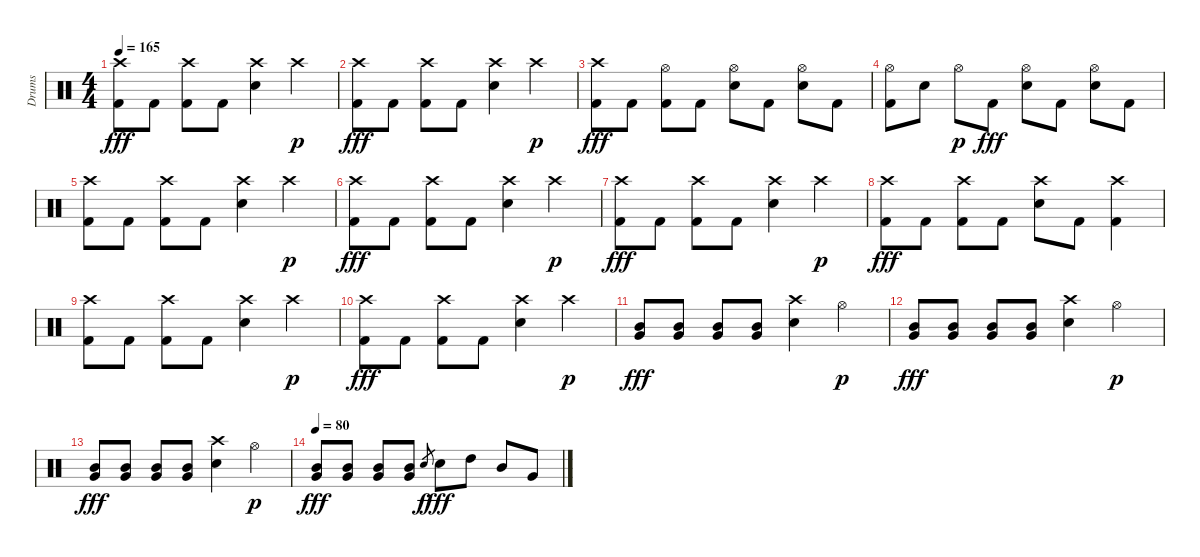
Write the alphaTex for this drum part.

\track ("Drums" "Drums") {instrument percussion}
\staff {score}
\articulation defaults
\ts (4 4)
\tempo 165
\clef neutral
\ks c
("Crash high (hit)" "Kick (hit) 2").8{dy fff} "Kick (hit) 2".8 ("Crash high (hit)" "Kick (hit) 2").8 "Kick (hit) 2".8 ("Crash high (hit)" "Snare (hit) 2").4 "Crash high (hit)".4{dy p} |
("Crash high (hit)" "Kick (hit) 2").8{dy fff} "Kick (hit) 2".8 ("Crash high (hit)" "Kick (hit) 2").8 "Kick (hit) 2".8 ("Crash high (hit)" "Snare (hit) 2").4 "Crash high (hit)".4{dy p} |
("Crash high (hit)" "Kick (hit) 2").8{dy fff} "Kick (hit) 2".8 ("Hi-Hat (open)" "Kick (hit) 2").8 "Kick (hit) 2".8 ("Hi-Hat (open)" "Snare (hit) 2").8 "Kick (hit) 2".8 ("Hi-Hat (open)" "Snare (hit) 2").8 "Kick (hit) 2".8 |
("Hi-Hat (open)" "Kick (hit) 2").8 "Snare (hit) 2".8 "Hi-Hat (open)".8{dy p} "Kick (hit) 2".8{dy fff} ("Hi-Hat (open)" "Snare (hit) 2").8 "Kick (hit) 2".8 ("Hi-Hat (open)" "Snare (hit) 2").8 "Kick (hit) 2".8 |
("Crash high (hit)" "Kick (hit) 2").8 "Kick (hit) 2".8 ("Crash high (hit)" "Kick (hit) 2").8 "Kick (hit) 2".8 ("Crash high (hit)" "Snare (hit) 2").4 "Crash high (hit)".4{dy p} |
("Crash high (hit)" "Kick (hit) 2").8{dy fff} "Kick (hit) 2".8 ("Crash high (hit)" "Kick (hit) 2").8 "Kick (hit) 2".8 ("Crash high (hit)" "Snare (hit) 2").4 "Crash high (hit)".4{dy p} |
("Crash high (hit)" "Kick (hit) 2").8{dy fff} "Kick (hit) 2".8 ("Crash high (hit)" "Kick (hit) 2").8 "Kick (hit) 2".8 ("Crash high (hit)" "Snare (hit) 2").4 "Crash high (hit)".4{dy p} |
("Crash high (hit)" "Kick (hit) 2").8{dy fff} "Kick (hit) 2".8 ("Crash high (hit)" "Kick (hit) 2").8 "Kick (hit) 2".8 ("Crash high (hit)" "Snare (hit) 2").8 "Kick (hit) 2".8 ("Crash high (hit)" "Kick (hit) 2").4 |
("Crash high (hit)" "Kick (hit) 2").8 "Kick (hit) 2".8 ("Crash high (hit)" "Kick (hit) 2").8 "Kick (hit) 2".8 ("Crash high (hit)" "Snare (hit) 2").4 "Crash high (hit)".4{dy p} |
("Crash high (hit)" "Kick (hit) 2").8{dy fff} "Kick (hit) 2".8 ("Crash high (hit)" "Kick (hit) 2").8 "Kick (hit) 2".8 ("Crash high (hit)" "Snare (hit) 2").4 "Crash high (hit)".4{dy p} |
("Mid Tom (hit)" "Very Low Tom (hit)").8{dy fff} ("Mid Tom (hit)" "Very Low Tom (hit)").8 ("Mid Tom (hit)" "Very Low Tom (hit)").8 ("Mid Tom (hit)" "Very Low Tom (hit)").8 ("Crash high (hit)" "Snare (hit) 2").4 "Hi-Hat (open)".4{dy p} |
("Mid Tom (hit)" "Very Low Tom (hit)").8{dy fff} ("Mid Tom (hit)" "Very Low Tom (hit)").8 ("Mid Tom (hit)" "Very Low Tom (hit)").8 ("Mid Tom (hit)" "Very Low Tom (hit)").8 ("Crash high (hit)" "Snare (hit) 2").4 "Hi-Hat (open)".4{dy p} |
("Mid Tom (hit)" "Very Low Tom (hit)").8{dy fff} ("Mid Tom (hit)" "Very Low Tom (hit)").8 ("Mid Tom (hit)" "Very Low Tom (hit)").8 ("Mid Tom (hit)" "Very Low Tom (hit)").8 ("Crash high (hit)" "Snare (hit) 2").4 "Hi-Hat (open)".4{dy p} |
\tempo 80
("Mid Tom (hit)" "Very Low Tom (hit)").8{dy fff} ("Mid Tom (hit)" "Very Low Tom (hit)").8 ("Mid Tom (hit)" "Very Low Tom (hit)").8 ("Mid Tom (hit)" "Very Low Tom (hit)").8 "Snare (hit) 2".8{gr dy f} "Snare (hit) 2".8{dy fff} "High Tom (hit)".8 "Mid Tom (hit)".8 "Very Low Tom (hit)".8
